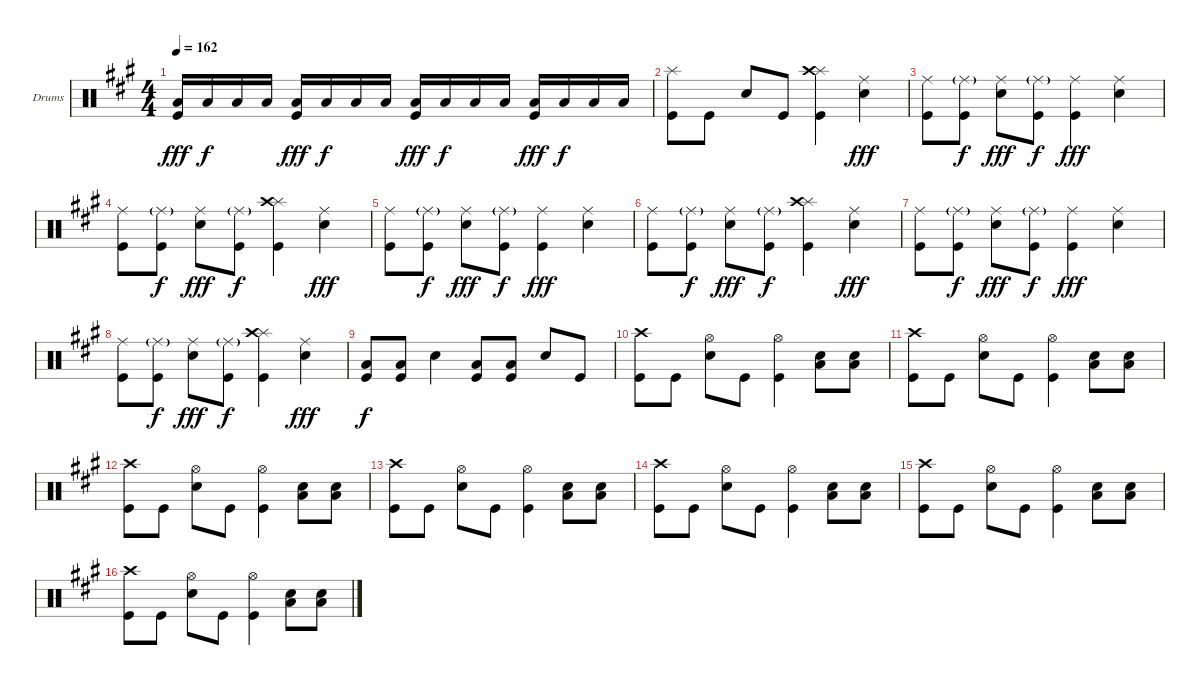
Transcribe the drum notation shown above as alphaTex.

\defaultSystemsLayout 4
\bracketExtendMode groupsimilarinstruments
\firstSystemTrackNameOrientation horizontal
\otherSystemsTrackNameOrientation horizontal
\track ("Drums" "Drums") {instrument percussion}
\staff {score}
\articulation defaults
\ts (4 4)
\tempo 162
\clef neutral
\scale
1.05801
\ks a
("Low Tom (hit)" "Kick (hit)").16{dy fff} "Low Tom (hit)".16{dy f} "Low Tom (hit)".16 "Low Tom (hit)".16 ("Low Tom (hit)" "Kick (hit)").16{dy fff} "Low Tom (hit)".16{dy f} "Low Tom (hit)".16 "Low Tom (hit)".16 ("Low Tom (hit)" "Kick (hit)").16{dy fff} "Low Tom (hit)".16{dy f} "Low Tom (hit)".16 "Low Tom (hit)".16 ("Low Tom (hit)" "Kick (hit)").16{dy fff} "Low Tom (hit)".16{dy f} "Low Tom (hit)".16 "Low Tom (hit)".16 |
\scale
0.941992 ("Splash (hit)" "Kick (hit)").8 "Kick (hit)".8 "Snare (hit) 2".8 "Kick (hit)".8 ("Splash (hit)" "Crash high (hit)" "Kick (hit)").4 ("Ride (middle)" "Snare (hit) 2").4{dy fff} |
\scale
1.05801 ("Ride (middle)" "Kick (hit)").8 ("Ride (middle)"{g} "Kick (hit)").8{dy f} ("Ride (middle)" "Snare (hit) 2").8{dy fff} ("Ride (middle)"{g} "Kick (hit)").8{dy f} ("Ride (middle)" "Kick (hit)").4{dy fff} ("Ride (middle)" "Snare (hit) 2").4 |
\scale
0.941992 ("Ride (middle)" "Kick (hit)").8 ("Ride (middle)"{g} "Kick (hit)").8{dy f} ("Ride (middle)" "Snare (hit) 2").8{dy fff} ("Ride (middle)"{g} "Kick (hit)").8{dy f} ("Splash (hit)" "Crash high (hit)" "Kick (hit)").4 ("Ride (middle)" "Snare (hit) 2").4{dy fff} |
\scale
1.05801 ("Ride (middle)" "Kick (hit)").8 ("Ride (middle)"{g} "Kick (hit)").8{dy f} ("Ride (middle)" "Snare (hit) 2").8{dy fff} ("Ride (middle)"{g} "Kick (hit)").8{dy f} ("Ride (middle)" "Kick (hit)").4{dy fff} ("Ride (middle)" "Snare (hit) 2").4 |
\scale
0.941992 ("Ride (middle)" "Kick (hit)").8 ("Ride (middle)"{g} "Kick (hit)").8{dy f} ("Ride (middle)" "Snare (hit) 2").8{dy fff} ("Ride (middle)"{g} "Kick (hit)").8{dy f} ("Splash (hit)" "Crash high (hit)" "Kick (hit)").4 ("Ride (middle)" "Snare (hit) 2").4{dy fff} |
\scale
1.05801 ("Ride (middle)" "Kick (hit)").8 ("Ride (middle)"{g} "Kick (hit)").8{dy f} ("Ride (middle)" "Snare (hit) 2").8{dy fff} ("Ride (middle)"{g} "Kick (hit)").8{dy f} ("Ride (middle)" "Kick (hit)").4{dy fff} ("Ride (middle)" "Snare (hit) 2").4 |
\scale
0.941992 ("Ride (middle)" "Kick (hit)").8 ("Ride (middle)"{g} "Kick (hit)").8{dy f} ("Ride (middle)" "Snare (hit) 2").8{dy fff} ("Ride (middle)"{g} "Kick (hit)").8{dy f} ("Splash (hit)" "Crash high (hit)" "Kick (hit)").4 ("Ride (middle)" "Snare (hit) 2").4{dy fff} |
\scale
1.05801 ("Low Tom (hit)" "Kick (hit)").8{dy f} ("Low Tom (hit)" "Kick (hit)").8 "Snare (hit) 2".4 ("Low Tom (hit)" "Kick (hit)").8 ("Low Tom (hit)" "Kick (hit)").8 "Snare (hit) 2".8 "Kick (hit)".8 |
\scale
0.941992 ("Crash high (hit)" "Kick (hit)").8 "Kick (hit)".8 ("Hi-Hat (open)" "Snare (hit) 2").8 "Kick (hit)".8 ("Hi-Hat (open)" "Kick (hit)").4 ("Snare (hit) 2" "Low Tom (hit)").8 ("Snare (hit) 2" "Low Tom (hit)").8 |
\scale
1.05801 ("Crash high (hit)" "Kick (hit)").8 "Kick (hit)".8 ("Hi-Hat (open)" "Snare (hit) 2").8 "Kick (hit)".8 ("Hi-Hat (open)" "Kick (hit)").4 ("Snare (hit) 2" "Low Tom (hit)").8 ("Snare (hit) 2" "Low Tom (hit)").8 |
\scale
0.941992 ("Crash high (hit)" "Kick (hit)").8 "Kick (hit)".8 ("Hi-Hat (open)" "Snare (hit) 2").8 "Kick (hit)".8 ("Hi-Hat (open)" "Kick (hit)").4 ("Snare (hit) 2" "Low Tom (hit)").8 ("Snare (hit) 2" "Low Tom (hit)").8 |
\scale
1.05801 ("Crash high (hit)" "Kick (hit)").8 "Kick (hit)".8 ("Hi-Hat (open)" "Snare (hit) 2").8 "Kick (hit)".8 ("Hi-Hat (open)" "Kick (hit)").4 ("Snare (hit) 2" "Low Tom (hit)").8 ("Snare (hit) 2" "Low Tom (hit)").8 |
\scale
0.941992 ("Crash high (hit)" "Kick (hit)").8 "Kick (hit)".8 ("Hi-Hat (open)" "Snare (hit) 2").8 "Kick (hit)".8 ("Hi-Hat (open)" "Kick (hit)").4 ("Snare (hit) 2" "Low Tom (hit)").8 ("Snare (hit) 2" "Low Tom (hit)").8 |
\scale
1.05801 ("Crash high (hit)" "Kick (hit)").8 "Kick (hit)".8 ("Hi-Hat (open)" "Snare (hit) 2").8 "Kick (hit)".8 ("Hi-Hat (open)" "Kick (hit)").4 ("Snare (hit) 2" "Low Tom (hit)").8 ("Snare (hit) 2" "Low Tom (hit)").8 |
\scale
0.941992 ("Crash high (hit)" "Kick (hit)").8 "Kick (hit)".8 ("Hi-Hat (open)" "Snare (hit) 2").8 "Kick (hit)".8 ("Hi-Hat (open)" "Kick (hit)").4 ("Snare (hit) 2" "Low Tom (hit)").8 ("Snare (hit) 2" "Low Tom (hit)").8
